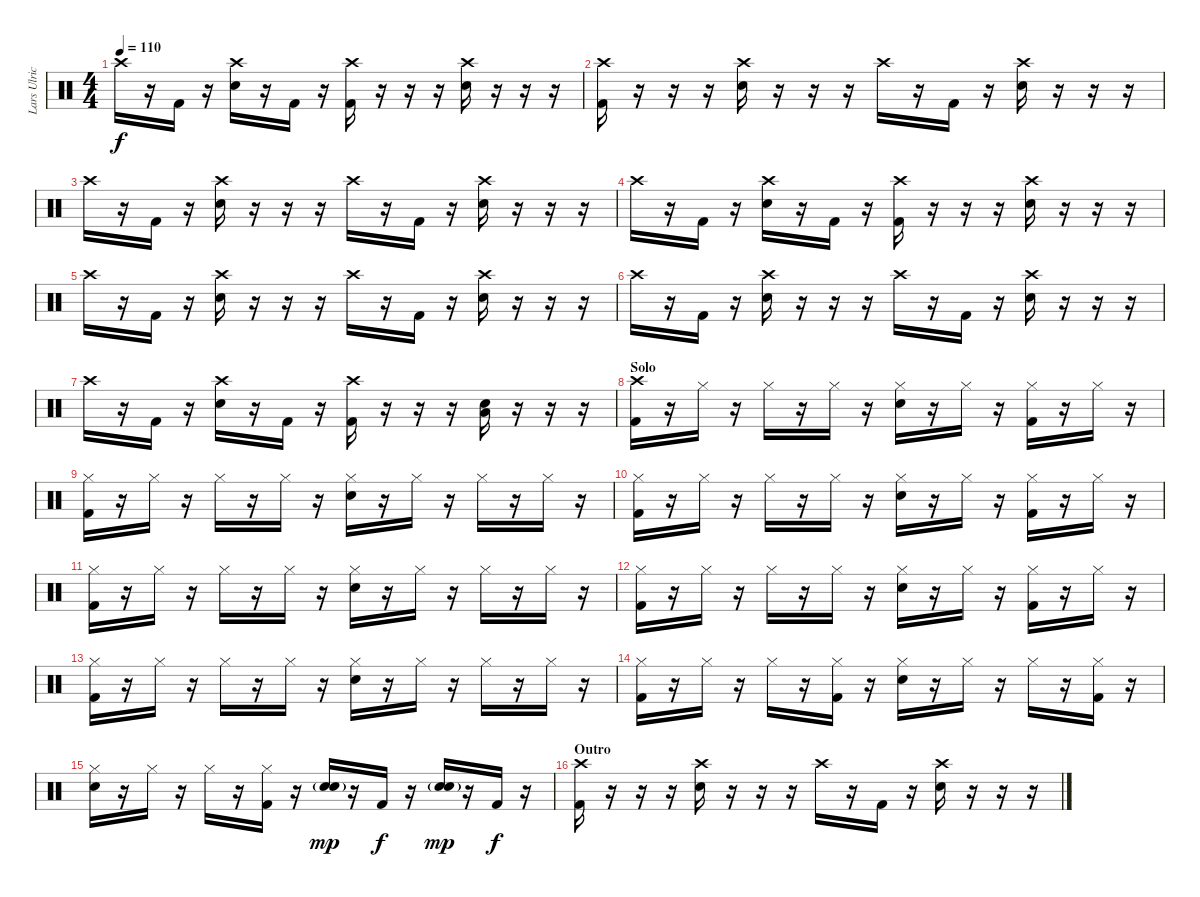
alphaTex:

\track ("Lars Ulrich - Drums" "Lars Ulric") {instrument percussion}
\staff {score}
\articulation defaults
\ts (4 4)
\tempo 110
\clef neutral
\ks c "Crash high (hit)".16{dy f}
r.16 "Kick (hit) 2".16 r.16 ("Crash high (hit)" "Snare (hit) 2").16 r.16 "Kick (hit) 2".16 r.16 ("Crash high (hit)" "Kick (hit) 2").16 r.16 r.16 r.16 ("Crash high (hit)" "Snare (hit) 2").16 r.16 r.16 r.16 |
("Crash high (hit)" "Kick (hit) 2").16 r.16 r.16 r.16 ("Crash high (hit)" "Snare (hit) 2").16 r.16 r.16 r.16 "Crash high (hit)".16 r.16 "Kick (hit) 2".16 r.16 ("Crash high (hit)" "Snare (hit) 2").16 r.16 r.16 r.16 |
"Crash high (hit)".16 r.16 "Kick (hit) 2".16 r.16 ("Crash high (hit)" "Snare (hit) 2").16 r.16 r.16 r.16 "Crash high (hit)".16 r.16 "Kick (hit) 2".16 r.16 ("Crash high (hit)" "Snare (hit) 2").16 r.16 r.16 r.16 |
"Crash high (hit)".16 r.16 "Kick (hit) 2".16 r.16 ("Crash high (hit)" "Snare (hit) 2").16 r.16 "Kick (hit) 2".16 r.16 ("Crash high (hit)" "Kick (hit) 2").16 r.16 r.16 r.16 ("Crash high (hit)" "Snare (hit) 2").16 r.16 r.16 r.16 |
"Crash high (hit)".16 r.16 "Kick (hit) 2".16 r.16 ("Crash high (hit)" "Snare (hit) 2").16 r.16 r.16 r.16 "Crash high (hit)".16 r.16 "Kick (hit) 2".16 r.16 ("Crash high (hit)" "Snare (hit) 2").16 r.16 r.16 r.16 |
"Crash high (hit)".16 r.16 "Kick (hit) 2".16 r.16 ("Crash high (hit)" "Snare (hit) 2").16 r.16 r.16 r.16 "Crash high (hit)".16 r.16 "Kick (hit) 2".16 r.16 ("Crash high (hit)" "Snare (hit) 2").16 r.16 r.16 r.16 |
"Crash high (hit)".16 r.16 "Kick (hit) 2".16 r.16 ("Crash high (hit)" "Snare (hit) 2").16 r.16 "Kick (hit) 2".16 r.16 ("Crash high (hit)" "Kick (hit) 2").16 r.16 r.16 r.16 ("Snare (hit) 2" "Low Floor Tom (hit)").16 r.16 r.16 r.16 |
\section ("" "Solo")
("Crash high (hit)" "Kick (hit) 2").16 r.16 "Hi-Hat (closed)".16 r.16 "Hi-Hat (closed)".16 r.16 "Hi-Hat (closed)".16 r.16 ("Hi-Hat (closed)" "Snare (hit) 2").16 r.16 "Hi-Hat (closed)".16 r.16 ("Hi-Hat (closed)" "Kick (hit) 2").16 r.16 "Hi-Hat (closed)".16 r.16 |
("Hi-Hat (closed)" "Kick (hit) 2").16 r.16 "Hi-Hat (closed)".16 r.16 "Hi-Hat (closed)".16 r.16 "Hi-Hat (closed)".16 r.16 ("Hi-Hat (closed)" "Snare (hit) 2").16 r.16 "Hi-Hat (closed)".16 r.16 "Hi-Hat (closed)".16 r.16 "Hi-Hat (closed)".16 r.16 |
("Hi-Hat (closed)" "Kick (hit) 2").16 r.16 "Hi-Hat (closed)".16 r.16 "Hi-Hat (closed)".16 r.16 "Hi-Hat (closed)".16 r.16 ("Hi-Hat (closed)" "Snare (hit) 2").16 r.16 "Hi-Hat (closed)".16 r.16 ("Hi-Hat (closed)" "Kick (hit) 2").16 r.16 "Hi-Hat (closed)".16 r.16 |
("Hi-Hat (closed)" "Kick (hit) 2").16 r.16 "Hi-Hat (closed)".16 r.16 "Hi-Hat (closed)".16 r.16 "Hi-Hat (closed)".16 r.16 ("Hi-Hat (closed)" "Snare (hit) 2").16 r.16 "Hi-Hat (closed)".16 r.16 "Hi-Hat (closed)".16 r.16 "Hi-Hat (closed)".16 r.16 |
("Hi-Hat (closed)" "Kick (hit) 2").16 r.16 "Hi-Hat (closed)".16 r.16 "Hi-Hat (closed)".16 r.16 "Hi-Hat (closed)".16 r.16 ("Hi-Hat (closed)" "Snare (hit) 2").16 r.16 "Hi-Hat (closed)".16 r.16 ("Hi-Hat (closed)" "Kick (hit) 2").16 r.16 "Hi-Hat (closed)".16 r.16 |
("Hi-Hat (closed)" "Kick (hit) 2").16 r.16 "Hi-Hat (closed)".16 r.16 "Hi-Hat (closed)".16 r.16 "Hi-Hat (closed)".16 r.16 ("Hi-Hat (closed)" "Snare (hit) 2").16 r.16 "Hi-Hat (closed)".16 r.16 "Hi-Hat (closed)".16 r.16 "Hi-Hat (closed)".16 r.16 |
("Hi-Hat (closed)" "Kick (hit) 2").16 r.16 "Hi-Hat (closed)".16 r.16 "Hi-Hat (closed)".16 r.16 ("Hi-Hat (closed)" "Kick (hit) 2").16 r.16 ("Hi-Hat (closed)" "Snare (hit) 2").16 r.16 "Hi-Hat (closed)".16 r.16 "Hi-Hat (closed)".16 r.16 ("Hi-Hat (closed)" "Kick (hit) 2").16 r.16 |
("Hi-Hat (closed)" "Snare (hit) 2").16 r.16 "Hi-Hat (closed)".16 r.16 "Hi-Hat (closed)".16 r.16 ("Hi-Hat (closed)" "Kick (hit) 2").16 r.16 ("Snare (hit) 2"{g} "Snare (hit) 2").16{dy mp} r.16 "Kick (hit) 2".16{dy f} r.16 ("Snare (hit) 2"{g} "Snare (hit) 2").16{dy mp} r.16 "Kick (hit) 2".16{dy f} r.16 |
\section ("" "Outro")
("Crash high (hit)" "Kick (hit) 2").16 r.16 r.16 r.16 ("Crash high (hit)" "Snare (hit) 2").16 r.16 r.16 r.16 "Crash high (hit)".16 r.16 "Kick (hit) 2".16 r.16 ("Crash high (hit)" "Snare (hit) 2").16 r.16 r.16 r.16
